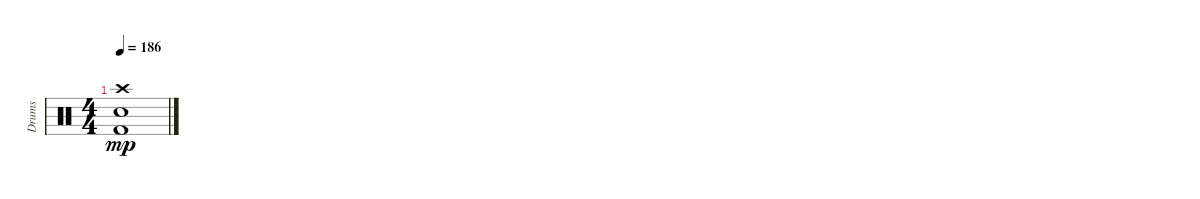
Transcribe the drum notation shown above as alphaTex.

\track ("Drums" "Drums") {instrument percussion}
\staff {score}
\articulation defaults
\ts (4 4)
\tempo 186
\clef neutral
\ks c
("Kick (hit) 2" "Crash high (hit)" "Snare (hit) 2").1{dy mp}
